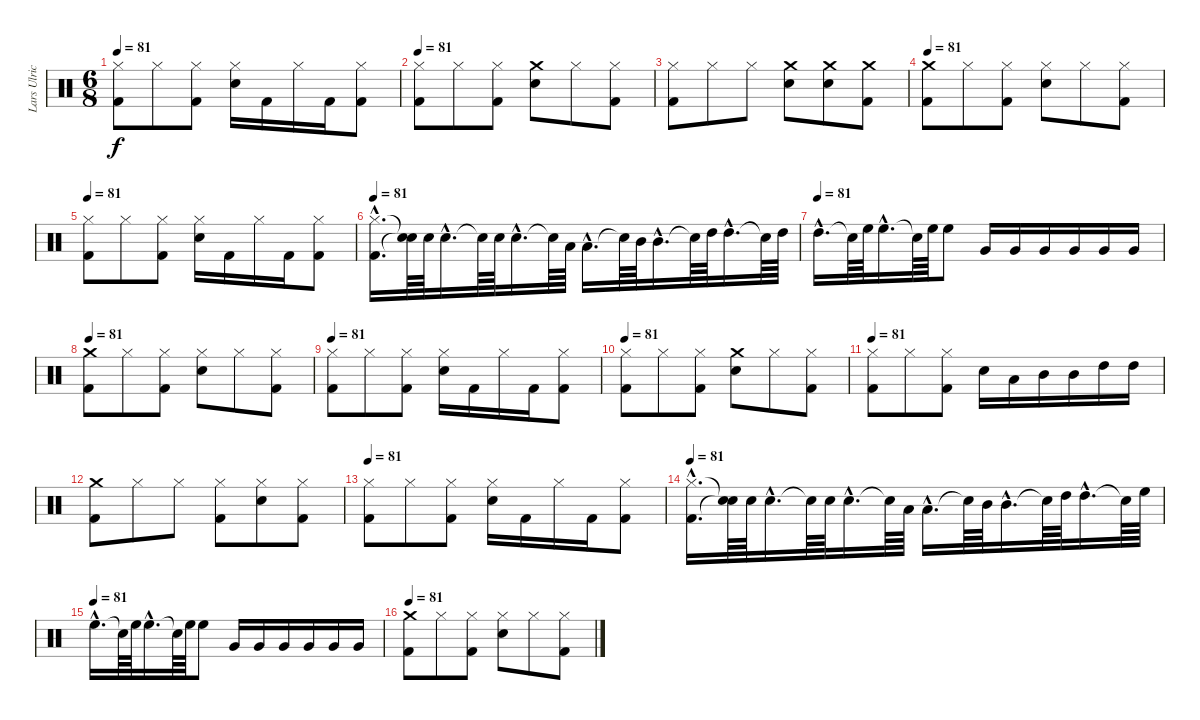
\track ("Lars Ulrich" "Lars Ulric") {instrument percussion}
\staff {score}
\articulation defaults
\ts (6 8)
\tempo 81
\clef neutral
\ks c
("Hi-Hat (closed)" "Kick (hit) 2").8{dy f} "Hi-Hat (closed)".8 ("Kick (hit) 2" "Hi-Hat (closed)").8 ("Hi-Hat (closed)" "Snare (hit) 2").16 "Kick (hit) 2".16 "Hi-Hat (closed)".16 "Kick (hit) 2".16 ("Kick (hit) 2" "Hi-Hat (closed)").8 |
\tempo 81
("Kick (hit) 2" "Hi-Hat (closed)").8 "Hi-Hat (closed)".8 ("Kick (hit) 2" "Hi-Hat (closed)").8 ("Crash medium (hit)" "Snare (hit) 2").8 "Hi-Hat (closed)".8 ("Kick (hit) 2" "Hi-Hat (closed)").8 |
("Hi-Hat (closed)" "Kick (hit) 2").8 "Hi-Hat (closed)".8 "Hi-Hat (closed)".8 ("Crash medium (hit)" "Snare (hit) 2").8 ("Crash medium (hit)" "Snare (hit) 2").8 ("Kick (hit) 2" "Crash medium (hit)").8 |
\tempo 81
("Crash medium (hit)" "Kick (hit) 2").8 "Hi-Hat (closed)".8 ("Hi-Hat (closed)" "Kick (hit) 2").8 ("Snare (hit) 2" "Hi-Hat (closed)").8 "Hi-Hat (closed)".8 ("Hi-Hat (closed)" "Kick (hit) 2").8 |
\tempo 81
("Hi-Hat (closed)" "Kick (hit) 2").8 "Hi-Hat (closed)".8 ("Kick (hit) 2" "Hi-Hat (closed)").8 ("Hi-Hat (closed)" "Snare (hit) 2").16 "Kick (hit) 2".16 "Hi-Hat (closed)".16 "Kick (hit) 2".16 ("Kick (hit) 2" "Hi-Hat (closed)").8 |
\tempo 81
("Kick (hit) 2"{hac} "Hi-Hat (closed)"{hac}).16{d} ("Snare (hit)"{t} "Snare (hit)"{t}).64 "Snare (hit) 2".64 "Snare (hit) 2"{hac}.16{d} "Snare (hit)"{t}.64 "Snare (hit) 2".64 "Snare (hit) 2"{hac}.16{d} "Snare (hit)"{t}.64 "Low Tom (hit)".64 "Low Tom (hit)"{hac}.16{d} "Snare (hit)"{t}.64 "Mid Tom (hit)".64 "Mid Tom (hit)"{hac}.16{d} "Snare (hit)"{t}.64 "High Tom (hit)".64 "High Tom (hit)"{hac}.16{d} "Snare (hit)"{t}.64 "High Tom (hit)".64 |
\tempo (81)
"High Tom (hit)"{hac}.16{d} "Snare (hit)"{t}.64 "High Floor Tom (hit)".64 "High Floor Tom (hit)"{hac}.16{d} "Snare (hit)"{t}.64 "High Floor Tom (hit)".64 "High Floor Tom (hit)".8 "Very Low Tom (hit)".16 "Very Low Tom (hit)".16 "Very Low Tom (hit)".16 "Very Low Tom (hit)".16 "Very Low Tom (hit)".16 "Very Low Tom (hit)".16 |
\tempo 81
("Kick (hit) 2" "Crash medium (hit)").8 "Hi-Hat (closed)".8 ("Kick (hit) 2" "Hi-Hat (closed)").8 ("Snare (hit) 2" "Hi-Hat (closed)").8 "Hi-Hat (closed)".8 ("Kick (hit) 2" "Hi-Hat (closed)").8 |
\tempo 81
("Hi-Hat (closed)" "Kick (hit) 2").8 "Hi-Hat (closed)".8 ("Kick (hit) 2" "Hi-Hat (closed)").8 ("Snare (hit) 2" "Hi-Hat (closed)").16 "Kick (hit) 2".16 "Hi-Hat (closed)".16 "Kick (hit) 2".16 ("Kick (hit) 2" "Hi-Hat (closed)").8 |
\tempo 81
("Kick (hit) 2" "Hi-Hat (closed)").8 "Hi-Hat (closed)".8 ("Kick (hit) 2" "Hi-Hat (closed)").8 ("Crash medium (hit)" "Snare (hit) 2").8 "Hi-Hat (closed)".8 ("Kick (hit) 2" "Hi-Hat (closed)").8 |
\tempo 81
("Hi-Hat (closed)" "Kick (hit) 2").8 "Hi-Hat (closed)".8 ("Hi-Hat (closed)" "Kick (hit) 2").8 "Snare (hit) 2".16 "Low Tom (hit)".16 "Mid Tom (hit)".16 "Mid Tom (hit)".16 "High Tom (hit)".16 "High Tom (hit)".16 |
("Crash medium (hit)" "Kick (hit) 2").8 "Hi-Hat (closed)".8 "Hi-Hat (closed)".8 ("Kick (hit) 2" "Hi-Hat (closed)").8 ("Snare (hit) 2" "Hi-Hat (closed)").8 ("Kick (hit) 2" "Hi-Hat (closed)").8 |
\tempo 81
("Hi-Hat (closed)" "Kick (hit) 2").8 "Hi-Hat (closed)".8 ("Kick (hit) 2" "Hi-Hat (closed)").8 ("Hi-Hat (closed)" "Snare (hit) 2").16 "Kick (hit) 2".16 "Hi-Hat (closed)".16 "Kick (hit) 2".16 ("Kick (hit) 2" "Hi-Hat (closed)").8 |
\tempo 81
("Kick (hit) 2"{hac} "Hi-Hat (closed)"{hac}).16{d} ("Snare (hit)"{t} "Snare (hit)"{t}).64 "Snare (hit) 2".64 "Snare (hit) 2"{hac}.16{d} "Snare (hit)"{t}.64 "Snare (hit) 2".64 "Snare (hit) 2"{hac}.16{d} "Snare (hit)"{t}.64 "Low Tom (hit)".64 "Low Tom (hit)"{hac}.16{d} "Snare (hit)"{t}.64 "Mid Tom (hit)".64 "Mid Tom (hit)"{hac}.16{d} "Snare (hit)"{t}.64 "High Tom (hit)".64 "High Tom (hit)"{hac}.16{d} "Snare (hit)"{t}.64 "High Floor Tom (hit)".64 |
\tempo (81)
"High Floor Tom (hit)"{hac}.16{d} "Snare (hit)"{t}.64 "High Floor Tom (hit)".64 "High Floor Tom (hit)"{hac}.16{d} "Snare (hit)"{t}.64 "High Floor Tom (hit)".64 "High Floor Tom (hit)".8 "Very Low Tom (hit)".16 "Very Low Tom (hit)".16 "Very Low Tom (hit)".16 "Very Low Tom (hit)".16 "Very Low Tom (hit)".16 "Very Low Tom (hit)".16 |
\tempo 81
("Kick (hit) 2" "Crash medium (hit)").8 "Hi-Hat (closed)".8 ("Kick (hit) 2" "Hi-Hat (closed)").8 ("Snare (hit) 2" "Hi-Hat (closed)").8 "Hi-Hat (closed)".8 ("Kick (hit) 2" "Hi-Hat (closed)").8
